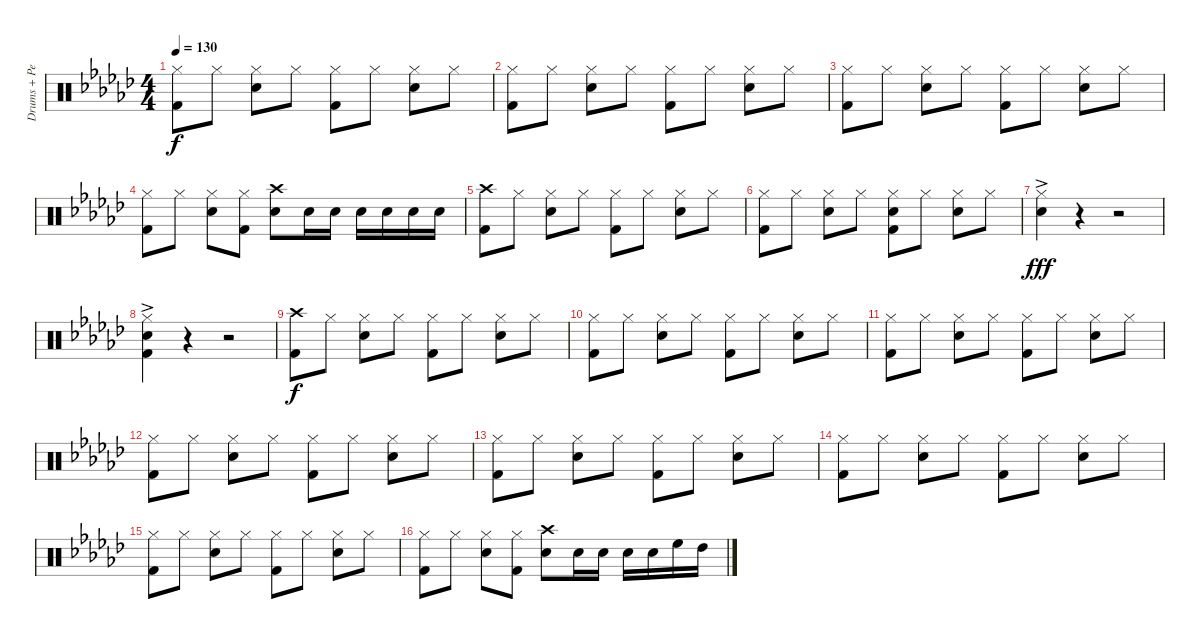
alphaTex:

\track ("Drums + Percussions" "Drums + Pe") {instrument percussion}
\staff {score}
\articulation defaults
\ts (4 4)
\tempo 130
\clef neutral
\ks gb
("Hi-Hat (closed)" "Kick (hit) 2").8{dy f} "Hi-Hat (closed)".8 ("Hi-Hat (closed)" "Electric Snare (hit)").8 "Hi-Hat (closed)".8 ("Hi-Hat (closed)" "Kick (hit) 2").8 "Hi-Hat (closed)".8 ("Hi-Hat (closed)" "Electric Snare (hit)").8 "Hi-Hat (closed)".8 |
("Hi-Hat (closed)" "Kick (hit) 2").8 "Hi-Hat (closed)".8 ("Hi-Hat (closed)" "Electric Snare (hit)").8 "Hi-Hat (closed)".8 ("Hi-Hat (closed)" "Kick (hit) 2").8 "Hi-Hat (closed)".8 ("Hi-Hat (closed)" "Electric Snare (hit)").8 "Hi-Hat (closed)".8 |
("Hi-Hat (closed)" "Kick (hit) 2").8 "Hi-Hat (closed)".8 ("Hi-Hat (closed)" "Electric Snare (hit)").8 "Hi-Hat (closed)".8 ("Hi-Hat (closed)" "Kick (hit) 2").8 "Hi-Hat (closed)".8 ("Hi-Hat (closed)" "Electric Snare (hit)").8 "Hi-Hat (closed)".8 |
("Hi-Hat (closed)" "Kick (hit) 2").8 "Hi-Hat (closed)".8 ("Hi-Hat (closed)" "Electric Snare (hit)").8 ("Hi-Hat (closed)" "Kick (hit) 2").8 ("Crash high (hit)" "Electric Snare (hit)").8 "Electric Snare (hit)".16 "Electric Snare (hit)".16 "Electric Snare (hit)".16 "Electric Snare (hit)".16 "Electric Snare (hit)".16 "Electric Snare (hit)".16 |
("Crash high (hit)" "Kick (hit) 2").8 "Hi-Hat (closed)".8 ("Hi-Hat (closed)" "Electric Snare (hit)").8 "Hi-Hat (closed)".8 ("Hi-Hat (closed)" "Kick (hit) 2").8 "Hi-Hat (closed)".8 ("Hi-Hat (closed)" "Electric Snare (hit)").8 "Hi-Hat (closed)".8 |
("Hi-Hat (closed)" "Kick (hit) 2").8 "Hi-Hat (closed)".8 ("Hi-Hat (closed)" "Electric Snare (hit)").8 "Hi-Hat (closed)".8 ("Hi-Hat (closed)" "Electric Snare (hit)" "Kick (hit) 2").8 "Hi-Hat (closed)".8 ("Hi-Hat (closed)" "Electric Snare (hit)").8 "Hi-Hat (closed)".8 |
("Hi-Hat (closed)"{ac} "Electric Snare (hit)"{ac}).4{dy fff} r.4 r.2 |
("Hi-Hat (closed)"{ac} "Electric Snare (hit)"{ac} "Kick (hit) 2"{ac}).4 r.4 r.2 |
("Crash high (hit)" "Kick (hit) 2").8{dy f} "Hi-Hat (closed)".8 ("Hi-Hat (closed)" "Electric Snare (hit)").8 "Hi-Hat (closed)".8 ("Hi-Hat (closed)" "Kick (hit) 2").8 "Hi-Hat (closed)".8 ("Hi-Hat (closed)" "Electric Snare (hit)").8 "Hi-Hat (closed)".8 |
("Hi-Hat (closed)" "Kick (hit) 2").8 "Hi-Hat (closed)".8 ("Hi-Hat (closed)" "Electric Snare (hit)").8 "Hi-Hat (closed)".8 ("Hi-Hat (closed)" "Kick (hit) 2").8 "Hi-Hat (closed)".8 ("Hi-Hat (closed)" "Electric Snare (hit)").8 "Hi-Hat (closed)".8 |
("Hi-Hat (closed)" "Kick (hit) 2").8 "Hi-Hat (closed)".8 ("Hi-Hat (closed)" "Electric Snare (hit)").8 "Hi-Hat (closed)".8 ("Hi-Hat (closed)" "Kick (hit) 2").8 "Hi-Hat (closed)".8 ("Hi-Hat (closed)" "Electric Snare (hit)").8 "Hi-Hat (closed)".8 |
("Hi-Hat (closed)" "Kick (hit) 2").8 "Hi-Hat (closed)".8 ("Hi-Hat (closed)" "Electric Snare (hit)").8 "Hi-Hat (closed)".8 ("Hi-Hat (closed)" "Kick (hit) 2").8 "Hi-Hat (closed)".8 ("Hi-Hat (closed)" "Electric Snare (hit)").8 "Hi-Hat (closed)".8 |
("Hi-Hat (closed)" "Kick (hit) 2").8 "Hi-Hat (closed)".8 ("Hi-Hat (closed)" "Electric Snare (hit)").8 "Hi-Hat (closed)".8 ("Hi-Hat (closed)" "Kick (hit) 2").8 "Hi-Hat (closed)".8 ("Hi-Hat (closed)" "Electric Snare (hit)").8 "Hi-Hat (closed)".8 |
("Hi-Hat (closed)" "Kick (hit) 2").8 "Hi-Hat (closed)".8 ("Hi-Hat (closed)" "Electric Snare (hit)").8 "Hi-Hat (closed)".8 ("Hi-Hat (closed)" "Kick (hit) 2").8 "Hi-Hat (closed)".8 ("Hi-Hat (closed)" "Electric Snare (hit)").8 "Hi-Hat (closed)".8 |
("Hi-Hat (closed)" "Kick (hit) 2").8 "Hi-Hat (closed)".8 ("Hi-Hat (closed)" "Electric Snare (hit)").8 "Hi-Hat (closed)".8 ("Hi-Hat (closed)" "Kick (hit) 2").8 "Hi-Hat (closed)".8 ("Hi-Hat (closed)" "Electric Snare (hit)").8 "Hi-Hat (closed)".8 |
("Hi-Hat (closed)" "Kick (hit) 2").8 "Hi-Hat (closed)".8 ("Hi-Hat (closed)" "Electric Snare (hit)").8 ("Hi-Hat (closed)" "Kick (hit) 2").8 ("Crash high (hit)" "Electric Snare (hit)").8 "Electric Snare (hit)".16 "Electric Snare (hit)".16 "Electric Snare (hit)".16 "Electric Snare (hit)".16 "High Floor Tom (hit)".16 "High Tom (hit)".16
